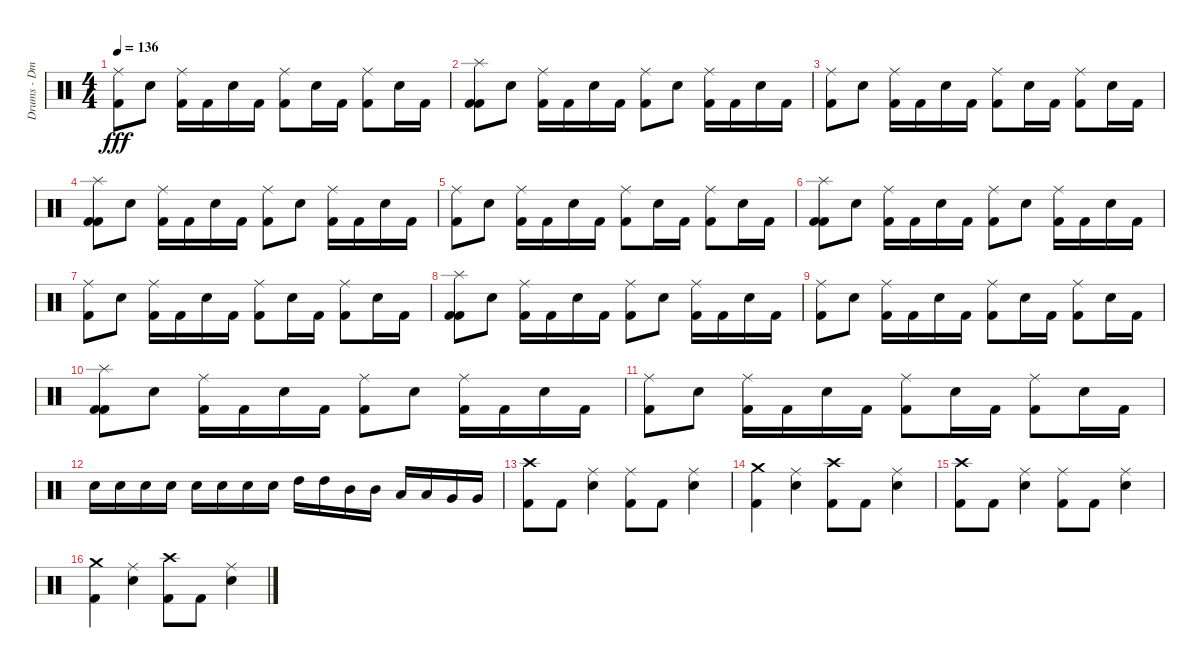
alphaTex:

\track ("Drums - Dmitriy Krivenkov" "Drums - Dm") {instrument percussion}
\staff {score}
\articulation defaults
\ts (4 4)
\tempo 136
\clef neutral
\ks c
("Ride (middle)" "Kick (hit) 2").8{dy fff} "Electric Snare (hit)".8 ("Ride (middle)" "Kick (hit) 2").16 "Kick (hit) 2".16 "Electric Snare (hit)".16 "Kick (hit) 2".16 ("Ride (middle)" "Kick (hit) 2").8 "Electric Snare (hit)".16 "Kick (hit) 2".16 ("Ride (middle)" "Kick (hit) 2").8 "Electric Snare (hit)".16 "Kick (hit) 2".16 |
("Splash (hit)" "Kick (hit) 2" "Kick (hit) 2").8 "Electric Snare (hit)".8 ("Kick (hit) 2" "Ride (middle)").16 "Kick (hit) 2".16 "Electric Snare (hit)".16 "Kick (hit) 2".16 ("Kick (hit) 2" "Ride (middle)").8 "Electric Snare (hit)".8 ("Ride (middle)" "Kick (hit) 2").16 "Kick (hit) 2".16 "Electric Snare (hit)".16 "Kick (hit) 2".16 |
("Ride (middle)" "Kick (hit) 2").8 "Electric Snare (hit)".8 ("Ride (middle)" "Kick (hit) 2").16 "Kick (hit) 2".16 "Electric Snare (hit)".16 "Kick (hit) 2".16 ("Kick (hit) 2" "Ride (middle)").8 "Electric Snare (hit)".16 "Kick (hit) 2".16 ("Ride (middle)" "Kick (hit) 2").8 "Electric Snare (hit)".16 "Kick (hit) 2".16 |
("Kick (hit) 2" "Kick (hit) 2" "Splash (hit)").8 "Electric Snare (hit)".8 ("Ride (middle)" "Kick (hit) 2").16 "Kick (hit) 2".16 "Electric Snare (hit)".16 "Kick (hit) 2".16 ("Ride (middle)" "Kick (hit) 2").8 "Electric Snare (hit)".8 ("Ride (middle)" "Kick (hit) 2").16 "Kick (hit) 2".16 "Electric Snare (hit)".16 "Kick (hit) 2".16 |
("Ride (middle)" "Kick (hit) 2").8 "Electric Snare (hit)".8 ("Ride (middle)" "Kick (hit) 2").16 "Kick (hit) 2".16 "Electric Snare (hit)".16 "Kick (hit) 2".16 ("Ride (middle)" "Kick (hit) 2").8 "Electric Snare (hit)".16 "Kick (hit) 2".16 ("Ride (middle)" "Kick (hit) 2").8 "Electric Snare (hit)".16 "Kick (hit) 2".16 |
("Splash (hit)" "Kick (hit) 2" "Kick (hit) 2").8 "Electric Snare (hit)".8 ("Kick (hit) 2" "Ride (middle)").16 "Kick (hit) 2".16 "Electric Snare (hit)".16 "Kick (hit) 2".16 ("Kick (hit) 2" "Ride (middle)").8 "Electric Snare (hit)".8 ("Ride (middle)" "Kick (hit) 2").16 "Kick (hit) 2".16 "Electric Snare (hit)".16 "Kick (hit) 2".16 |
("Ride (middle)" "Kick (hit) 2").8 "Electric Snare (hit)".8 ("Ride (middle)" "Kick (hit) 2").16 "Kick (hit) 2".16 "Electric Snare (hit)".16 "Kick (hit) 2".16 ("Kick (hit) 2" "Ride (middle)").8 "Electric Snare (hit)".16 "Kick (hit) 2".16 ("Ride (middle)" "Kick (hit) 2").8 "Electric Snare (hit)".16 "Kick (hit) 2".16 |
("Kick (hit) 2" "Kick (hit) 2" "Splash (hit)").8 "Electric Snare (hit)".8 ("Ride (middle)" "Kick (hit) 2").16 "Kick (hit) 2".16 "Electric Snare (hit)".16 "Kick (hit) 2".16 ("Ride (middle)" "Kick (hit) 2").8 "Electric Snare (hit)".8 ("Ride (middle)" "Kick (hit) 2").16 "Kick (hit) 2".16 "Electric Snare (hit)".16 "Kick (hit) 2".16 |
("Ride (middle)" "Kick (hit) 2").8 "Electric Snare (hit)".8 ("Ride (middle)" "Kick (hit) 2").16 "Kick (hit) 2".16 "Electric Snare (hit)".16 "Kick (hit) 2".16 ("Ride (middle)" "Kick (hit) 2").8 "Electric Snare (hit)".16 "Kick (hit) 2".16 ("Ride (middle)" "Kick (hit) 2").8 "Electric Snare (hit)".16 "Kick (hit) 2".16 |
("Kick (hit) 2" "Kick (hit) 2" "Splash (hit)").8 "Electric Snare (hit)".8 ("Ride (middle)" "Kick (hit) 2").16 "Kick (hit) 2".16 "Electric Snare (hit)".16 "Kick (hit) 2".16 ("Ride (middle)" "Kick (hit) 2").8 "Electric Snare (hit)".8 ("Ride (middle)" "Kick (hit) 2").16 "Kick (hit) 2".16 "Electric Snare (hit)".16 "Kick (hit) 2".16 |
("Ride (middle)" "Kick (hit) 2").8 "Electric Snare (hit)".8 ("Ride (middle)" "Kick (hit) 2").16 "Kick (hit) 2".16 "Electric Snare (hit)".16 "Kick (hit) 2".16 ("Ride (middle)" "Kick (hit) 2").8 "Electric Snare (hit)".16 "Kick (hit) 2".16 ("Ride (middle)" "Kick (hit) 2").8 "Electric Snare (hit)".16 "Kick (hit) 2".16 |
"Electric Snare (hit)".16 "Electric Snare (hit)".16 "Electric Snare (hit)".16 "Electric Snare (hit)".16 "Electric Snare (hit)".16 "Electric Snare (hit)".16 "Electric Snare (hit)".16 "Electric Snare (hit)".16 "High Tom (hit)".16 "High Tom (hit)".16 "Mid Tom (hit)".16 "Mid Tom (hit)".16 "Low Tom (hit)".16 "Low Tom (hit)".16 "Very Low Tom (hit)".16 "Very Low Tom (hit)".16 |
("Crash high (hit)" "Kick (hit) 2").8 "Kick (hit) 2".8 ("Ride (middle)" "Electric Snare (hit)").4 ("Ride (middle)" "Kick (hit) 2").8 "Kick (hit) 2".8 ("Ride (middle)" "Electric Snare (hit)").4 |
("Crash medium (hit)" "Kick (hit) 2").4 ("Ride (middle)" "Electric Snare (hit)").4 ("Crash high (hit)" "Kick (hit) 2").8 "Kick (hit) 2".8 ("Ride (middle)" "Electric Snare (hit)").4 |
("Crash high (hit)" "Kick (hit) 2").8 "Kick (hit) 2".8 ("Ride (middle)" "Electric Snare (hit)").4 ("Ride (middle)" "Kick (hit) 2").8 "Kick (hit) 2".8 ("Ride (middle)" "Electric Snare (hit)").4 |
("Kick (hit) 2" "Crash medium (hit)").4 ("Electric Snare (hit)" "Ride (middle)").4 ("Kick (hit) 2" "Crash high (hit)").8 "Kick (hit) 2".8 ("Electric Snare (hit)" "Ride (middle)").4
